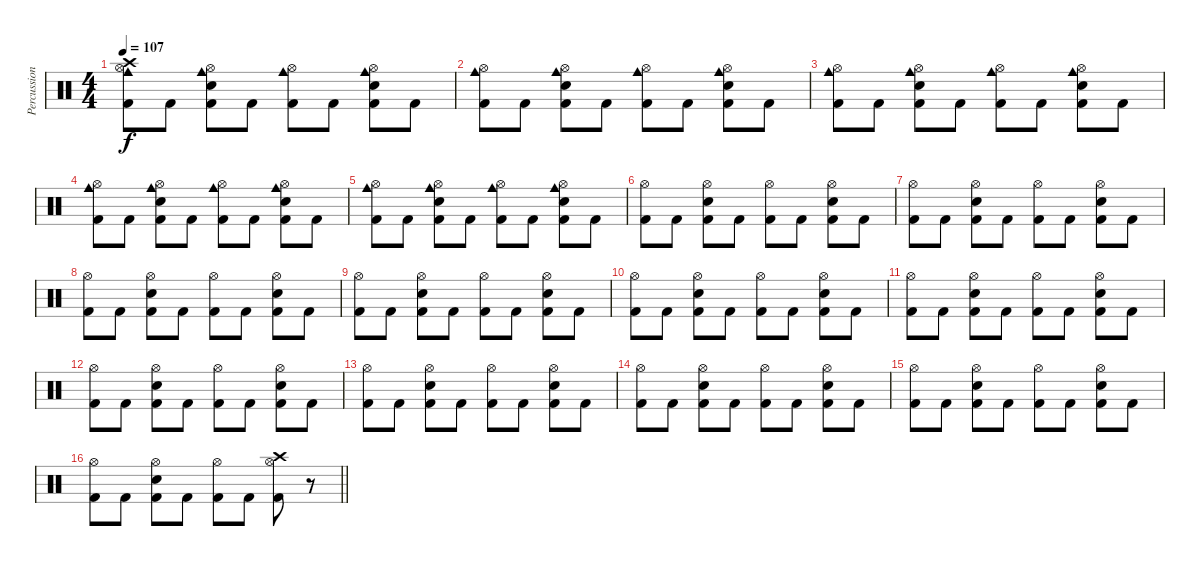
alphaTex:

\track ("Percussion" "Percussion") {instrument percussion}
\staff {score}
\articulation defaults
\ts (4 4)
\tempo 107
\clef neutral
\ks c
("Cowbell medium (hit)" "Hi-Hat (open)" "Crash high (hit)" "Kick (hit) 2").8{dy f} "Kick (hit) 2".8 ("Cowbell medium (hit)" "Hi-Hat (open)" "Snare (hit) 2" "Kick (hit) 2").8 "Kick (hit) 2".8 ("Cowbell medium (hit)" "Hi-Hat (open)" "Kick (hit) 2").8 "Kick (hit) 2".8 ("Cowbell medium (hit)" "Hi-Hat (open)" "Snare (hit) 2" "Kick (hit) 2").8 "Kick (hit) 2".8 |
("Cowbell medium (hit)" "Hi-Hat (open)" "Kick (hit) 2").8 "Kick (hit) 2".8 ("Cowbell medium (hit)" "Hi-Hat (open)" "Snare (hit) 2" "Kick (hit) 2").8 "Kick (hit) 2".8 ("Cowbell medium (hit)" "Hi-Hat (open)" "Kick (hit) 2").8 "Kick (hit) 2".8 ("Cowbell medium (hit)" "Hi-Hat (open)" "Snare (hit) 2" "Kick (hit) 2").8 "Kick (hit) 2".8 |
("Cowbell medium (hit)" "Hi-Hat (open)" "Kick (hit) 2").8 "Kick (hit) 2".8 ("Cowbell medium (hit)" "Hi-Hat (open)" "Snare (hit) 2" "Kick (hit) 2").8 "Kick (hit) 2".8 ("Cowbell medium (hit)" "Hi-Hat (open)" "Kick (hit) 2").8 "Kick (hit) 2".8 ("Cowbell medium (hit)" "Hi-Hat (open)" "Snare (hit) 2" "Kick (hit) 2").8 "Kick (hit) 2".8 |
("Cowbell medium (hit)" "Hi-Hat (open)" "Kick (hit) 2").8 "Kick (hit) 2".8 ("Cowbell medium (hit)" "Hi-Hat (open)" "Snare (hit) 2" "Kick (hit) 2").8 "Kick (hit) 2".8 ("Cowbell medium (hit)" "Hi-Hat (open)" "Kick (hit) 2").8 "Kick (hit) 2".8 ("Cowbell medium (hit)" "Hi-Hat (open)" "Snare (hit) 2" "Kick (hit) 2").8 "Kick (hit) 2".8 |
("Cowbell medium (hit)" "Hi-Hat (open)" "Kick (hit) 2").8 "Kick (hit) 2".8 ("Cowbell medium (hit)" "Hi-Hat (open)" "Snare (hit) 2" "Kick (hit) 2").8 "Kick (hit) 2".8 ("Cowbell medium (hit)" "Hi-Hat (open)" "Kick (hit) 2").8 "Kick (hit) 2".8 ("Cowbell medium (hit)" "Hi-Hat (open)" "Snare (hit) 2" "Kick (hit) 2").8 "Kick (hit) 2".8 |
("Hi-Hat (open)" "Kick (hit) 2").8 "Kick (hit) 2".8 ("Hi-Hat (open)" "Snare (hit) 2" "Kick (hit) 2").8 "Kick (hit) 2".8 ("Hi-Hat (open)" "Kick (hit) 2").8 "Kick (hit) 2".8 ("Hi-Hat (open)" "Snare (hit) 2" "Kick (hit) 2").8 "Kick (hit) 2".8 |
("Hi-Hat (open)" "Kick (hit) 2").8 "Kick (hit) 2".8 ("Hi-Hat (open)" "Snare (hit) 2" "Kick (hit) 2").8 "Kick (hit) 2".8 ("Hi-Hat (open)" "Kick (hit) 2").8 "Kick (hit) 2".8 ("Hi-Hat (open)" "Snare (hit) 2" "Kick (hit) 2").8 "Kick (hit) 2".8 |
("Hi-Hat (open)" "Kick (hit) 2").8 "Kick (hit) 2".8 ("Hi-Hat (open)" "Snare (hit) 2" "Kick (hit) 2").8 "Kick (hit) 2".8 ("Hi-Hat (open)" "Kick (hit) 2").8 "Kick (hit) 2".8 ("Hi-Hat (open)" "Snare (hit) 2" "Kick (hit) 2").8 "Kick (hit) 2".8 |
("Hi-Hat (open)" "Kick (hit) 2").8 "Kick (hit) 2".8 ("Hi-Hat (open)" "Snare (hit) 2" "Kick (hit) 2").8 "Kick (hit) 2".8 ("Hi-Hat (open)" "Kick (hit) 2").8 "Kick (hit) 2".8 ("Hi-Hat (open)" "Snare (hit) 2" "Kick (hit) 2").8 "Kick (hit) 2".8 |
("Hi-Hat (open)" "Kick (hit) 2").8 "Kick (hit) 2".8 ("Hi-Hat (open)" "Snare (hit) 2" "Kick (hit) 2").8 "Kick (hit) 2".8 ("Hi-Hat (open)" "Kick (hit) 2").8 "Kick (hit) 2".8 ("Hi-Hat (open)" "Snare (hit) 2" "Kick (hit) 2").8 "Kick (hit) 2".8 |
("Hi-Hat (open)" "Kick (hit) 2").8 "Kick (hit) 2".8 ("Hi-Hat (open)" "Snare (hit) 2" "Kick (hit) 2").8 "Kick (hit) 2".8 ("Hi-Hat (open)" "Kick (hit) 2").8 "Kick (hit) 2".8 ("Hi-Hat (open)" "Snare (hit) 2" "Kick (hit) 2").8 "Kick (hit) 2".8 |
("Hi-Hat (open)" "Kick (hit) 2").8 "Kick (hit) 2".8 ("Hi-Hat (open)" "Snare (hit) 2" "Kick (hit) 2").8 "Kick (hit) 2".8 ("Hi-Hat (open)" "Kick (hit) 2").8 "Kick (hit) 2".8 ("Hi-Hat (open)" "Snare (hit) 2" "Kick (hit) 2").8 "Kick (hit) 2".8 |
("Hi-Hat (open)" "Kick (hit) 2").8 "Kick (hit) 2".8 ("Hi-Hat (open)" "Snare (hit) 2" "Kick (hit) 2").8 "Kick (hit) 2".8 ("Hi-Hat (open)" "Kick (hit) 2").8 "Kick (hit) 2".8 ("Hi-Hat (open)" "Snare (hit) 2" "Kick (hit) 2").8 "Kick (hit) 2".8 |
("Hi-Hat (open)" "Kick (hit) 2").8 "Kick (hit) 2".8 ("Hi-Hat (open)" "Snare (hit) 2" "Kick (hit) 2").8 "Kick (hit) 2".8 ("Hi-Hat (open)" "Kick (hit) 2").8 "Kick (hit) 2".8 ("Hi-Hat (open)" "Snare (hit) 2" "Kick (hit) 2").8 "Kick (hit) 2".8 |
("Hi-Hat (open)" "Kick (hit) 2").8 "Kick (hit) 2".8 ("Hi-Hat (open)" "Snare (hit) 2" "Kick (hit) 2").8 "Kick (hit) 2".8 ("Hi-Hat (open)" "Kick (hit) 2").8 "Kick (hit) 2".8 ("Hi-Hat (open)" "Snare (hit) 2" "Kick (hit) 2").8 "Kick (hit) 2".8 |
\barLineRight lightlight
("Hi-Hat (open)" "Kick (hit) 2").8 "Kick (hit) 2".8 ("Hi-Hat (open)" "Snare (hit) 2" "Kick (hit) 2").8 "Kick (hit) 2".8 ("Hi-Hat (open)" "Kick (hit) 2").8 "Kick (hit) 2".8 ("Hi-Hat (open)" "Crash high (hit)" "Kick (hit) 2").8 r.8
